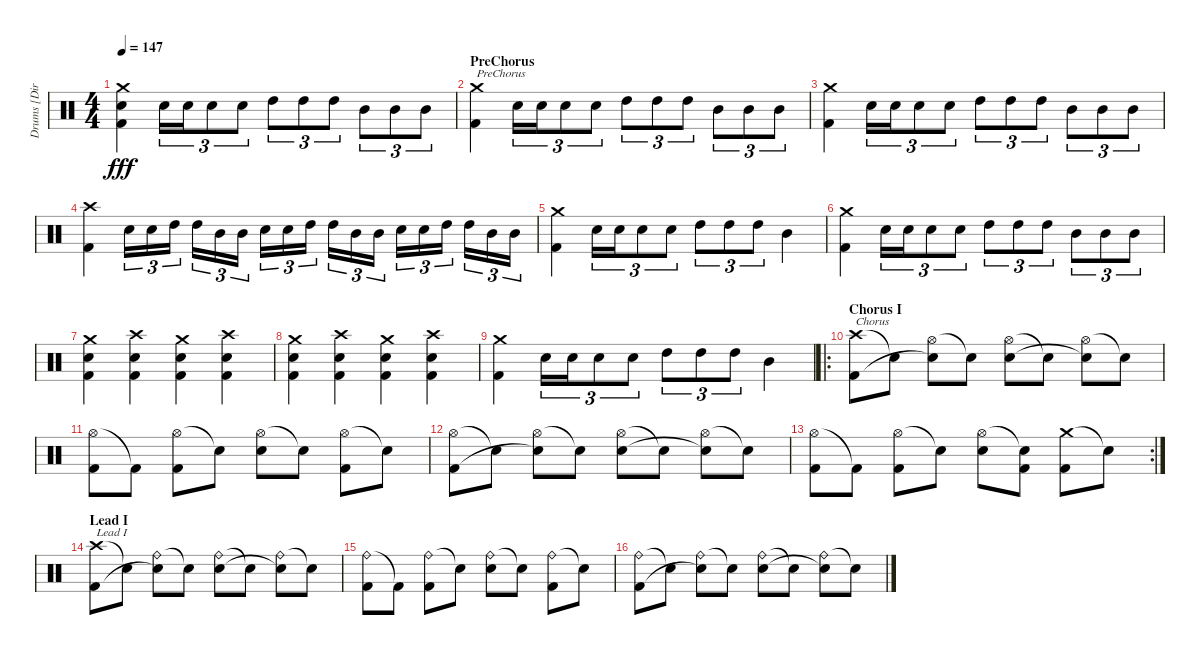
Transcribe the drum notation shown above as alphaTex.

\track ("Drums [Dirge Rep]" "Drums [Dir") {instrument percussion}
\staff {score}
\articulation defaults
\ts (4 4)
\tempo 147
\clef neutral
\ks c
("Crash medium (hit)" "Electric Snare (hit)" "Kick (hit) 2").4{dy fff} "Electric Snare (hit)".16{tu (3 2)} "Electric Snare (hit)".16{tu (3 2)} "Electric Snare (hit)".8{tu (3 2)} "Electric Snare (hit)".8{tu (3 2)} "High Tom (hit)".8{tu (3 2)} "High Tom (hit)".8{tu (3 2)} "High Tom (hit)".8{tu (3 2)} "Mid Tom (hit)".8{tu (3 2)} "Mid Tom (hit)".8{tu (3 2)} "Mid Tom (hit)".8{tu (3 2)} |
\section ("" "PreChorus")
("Crash medium (hit)" "Kick (hit) 2").4{txt "PreChorus"} "Electric Snare (hit)".16{tu (3 2)} "Electric Snare (hit)".16{tu (3 2)} "Electric Snare (hit)".8{tu (3 2)} "Electric Snare (hit)".8{tu (3 2)} "High Tom (hit)".8{tu (3 2)} "High Tom (hit)".8{tu (3 2)} "High Tom (hit)".8{tu (3 2)} "Mid Tom (hit)".8{tu (3 2)} "Mid Tom (hit)".8{tu (3 2)} "Mid Tom (hit)".8{tu (3 2)} |
("Crash medium (hit)" "Kick (hit) 2").4 "Electric Snare (hit)".16{tu (3 2)} "Electric Snare (hit)".16{tu (3 2)} "Electric Snare (hit)".8{tu (3 2)} "Electric Snare (hit)".8{tu (3 2)} "High Tom (hit)".8{tu (3 2)} "High Tom (hit)".8{tu (3 2)} "High Tom (hit)".8{tu (3 2)} "Mid Tom (hit)".8{tu (3 2)} "Mid Tom (hit)".8{tu (3 2)} "Mid Tom (hit)".8{tu (3 2)} |
("Crash high (hit)" "Kick (hit) 2").4 "Electric Snare (hit)".16{tu (3 2)} "Electric Snare (hit)".16{tu (3 2)} "High Tom (hit)".16{tu (3 2)} "High Tom (hit)".16{tu (3 2)} "Mid Tom (hit)".16{tu (3 2)} "Mid Tom (hit)".16{tu (3 2)} "Electric Snare (hit)".16{tu (3 2)} "Electric Snare (hit)".16{tu (3 2)} "High Tom (hit)".16{tu (3 2)} "High Tom (hit)".16{tu (3 2)} "Mid Tom (hit)".16{tu (3 2)} "Mid Tom (hit)".16{tu (3 2)} "Electric Snare (hit)".16{tu (3 2)} "Electric Snare (hit)".16{tu (3 2)} "High Tom (hit)".16{tu (3 2)} "High Tom (hit)".16{tu (3 2)} "Mid Tom (hit)".16{tu (3 2)} "Mid Tom (hit)".16{tu (3 2)} |
("Crash medium (hit)" "Kick (hit) 2").4 "Electric Snare (hit)".16{tu (3 2)} "Electric Snare (hit)".16{tu (3 2)} "Electric Snare (hit)".8{tu (3 2)} "Electric Snare (hit)".8{tu (3 2)} "High Tom (hit)".8{tu (3 2)} "High Tom (hit)".8{tu (3 2)} "High Tom (hit)".8{tu (3 2)} "Mid Tom (hit)".4 |
("Crash medium (hit)" "Kick (hit) 2").4 "Electric Snare (hit)".16{tu (3 2)} "Electric Snare (hit)".16{tu (3 2)} "Electric Snare (hit)".8{tu (3 2)} "Electric Snare (hit)".8{tu (3 2)} "High Tom (hit)".8{tu (3 2)} "High Tom (hit)".8{tu (3 2)} "High Tom (hit)".8{tu (3 2)} "Mid Tom (hit)".8{tu (3 2)} "Mid Tom (hit)".8{tu (3 2)} "Mid Tom (hit)".8{tu (3 2)} |
("Crash medium (hit)" "Electric Snare (hit)" "Kick (hit) 2").4 ("Crash high (hit)" "Electric Snare (hit)" "Kick (hit) 2").4 ("Crash medium (hit)" "Electric Snare (hit)" "Kick (hit) 2").4 ("Crash high (hit)" "Electric Snare (hit)" "Kick (hit) 2").4 |
("Crash medium (hit)" "Electric Snare (hit)" "Kick (hit) 2").4 ("Crash high (hit)" "Electric Snare (hit)" "Kick (hit) 2").4 ("Crash medium (hit)" "Electric Snare (hit)" "Kick (hit) 2").4 ("Crash high (hit)" "Electric Snare (hit)" "Kick (hit) 2").4 |
("Crash medium (hit)" "Kick (hit) 2").4 "Electric Snare (hit)".16{tu (3 2)} "Electric Snare (hit)".16{tu (3 2)} "Electric Snare (hit)".8{tu (3 2)} "Electric Snare (hit)".8{tu (3 2)} "High Tom (hit)".8{tu (3 2)} "High Tom (hit)".8{tu (3 2)} "High Tom (hit)".8{tu (3 2)} "Mid Tom (hit)".4 |
\ro
\section ("" "Chorus I")
("Crash high (hit)" "Kick (hit) 2").8{txt "Chorus"} "Snare (hit)"{t}.8 ("Hi-Hat (open)" "Snare (hit)"{t}).8 "Snare (hit)"{t}.8 ("Hi-Hat (open)" "Electric Snare (hit)").8 "Snare (hit)"{t}.8 ("Hi-Hat (open)" "Snare (hit)"{t}).8 "Snare (hit)"{t}.8 |
("Hi-Hat (open)" "Kick (hit) 2").8 "Kick (hit) 2"{t}.8 ("Hi-Hat (open)" "Kick (hit) 2").8 "Snare (hit)"{t}.8 ("Hi-Hat (open)" "Electric Snare (hit)").8 "Snare (hit)"{t}.8 ("Hi-Hat (open)" "Kick (hit) 2").8 "Snare (hit)"{t}.8 |
("Hi-Hat (open)" "Kick (hit) 2").8 "Snare (hit)"{t}.8 ("Hi-Hat (open)" "Snare (hit)"{t}).8 "Snare (hit)"{t}.8 ("Hi-Hat (open)" "Electric Snare (hit)").8 "Snare (hit)"{t}.8 ("Hi-Hat (open)" "Snare (hit)"{t}).8 "Snare (hit)"{t}.8 |
\rc 2
("Hi-Hat (open)" "Kick (hit) 2").8 "Kick (hit) 2"{t}.8 ("Hi-Hat (open)" "Kick (hit) 2").8 "Snare (hit)"{t}.8 ("Hi-Hat (open)" "Electric Snare (hit)").8 ("Snare (hit)"{t} "Kick (hit) 2").8 ("Crash medium (hit)" "Kick (hit) 2").8 "Snare (hit)"{t}.8 |
\section ("" "Lead I")
("Crash high (hit)" "Kick (hit) 2").8{txt "Lead I"} "Snare (hit)"{t}.8 ("Ride (bell)" "Snare (hit)"{t}).8 "Snare (hit)"{t}.8 ("Ride (bell)" "Electric Snare (hit)").8 "Snare (hit)"{t}.8 ("Ride (bell)" "Snare (hit)"{t}).8 "Snare (hit)"{t}.8 |
("Ride (bell)" "Kick (hit) 2").8 "Kick (hit) 2"{t}.8 ("Ride (bell)" "Kick (hit) 2").8 "Snare (hit)"{t}.8 ("Ride (bell)" "Electric Snare (hit)").8 "Snare (hit)"{t}.8 ("Ride (bell)" "Kick (hit) 2").8 "Snare (hit)"{t}.8 |
("Ride (bell)" "Kick (hit) 2").8 "Snare (hit)"{t}.8 ("Ride (bell)" "Snare (hit)"{t}).8 "Snare (hit)"{t}.8 ("Ride (bell)" "Electric Snare (hit)").8 "Snare (hit)"{t}.8 ("Ride (bell)" "Snare (hit)"{t}).8 "Snare (hit)"{t}.8
